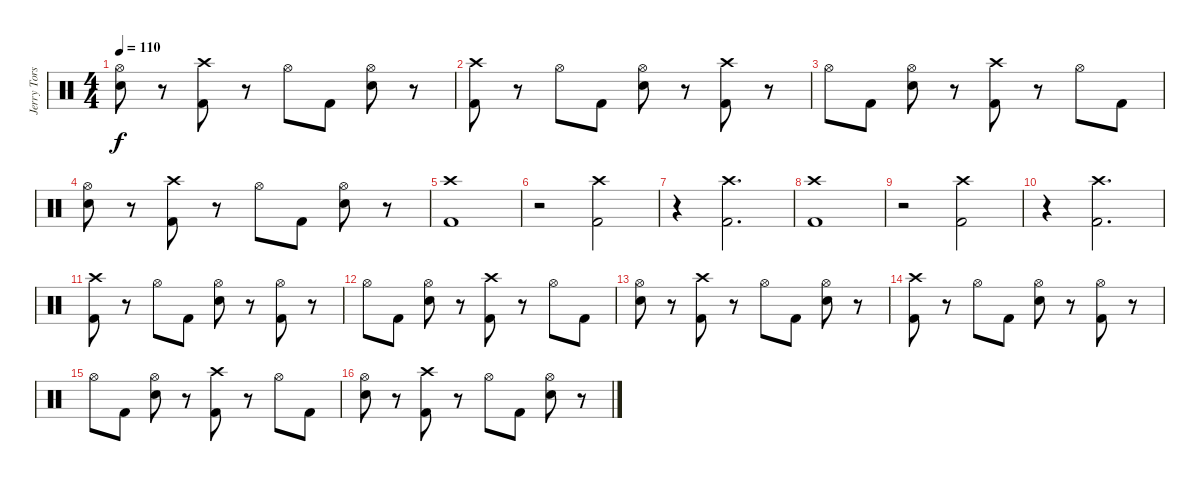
\track ("Jerry Torstensson" "Jerry Tors") {instrument percussion}
\staff {score}
\articulation defaults
\ts (4 4)
\tempo 110
\clef neutral
\ks c
("Hi-Hat (open)" "Electric Snare (hit)").8{dy f} r.8 ("Crash high (hit)" "Kick (hit) 2").8 r.8 "Hi-Hat (open)".8 "Kick (hit) 2".8 ("Hi-Hat (open)" "Electric Snare (hit)").8 r.8 |
("Crash high (hit)" "Kick (hit) 2").8 r.8 "Hi-Hat (open)".8 "Kick (hit) 2".8 ("Hi-Hat (open)" "Electric Snare (hit)").8 r.8 ("Crash high (hit)" "Kick (hit) 2").8 r.8 |
"Hi-Hat (open)".8 "Kick (hit) 2".8 ("Hi-Hat (open)" "Electric Snare (hit)").8 r.8 ("Crash high (hit)" "Kick (hit) 2").8 r.8 "Hi-Hat (open)".8 "Kick (hit) 2".8 |
("Hi-Hat (open)" "Electric Snare (hit)").8 r.8 ("Crash high (hit)" "Kick (hit) 2").8 r.8 "Hi-Hat (open)".8 "Kick (hit) 2".8 ("Hi-Hat (open)" "Electric Snare (hit)").8 r.8 |
("Crash high (hit)" "Kick (hit) 2").1 |
r.2 ("Crash high (hit)" "Kick (hit) 2").2 |
r.4 ("Crash high (hit)" "Kick (hit) 2").2{d} |
("Crash high (hit)" "Kick (hit) 2").1 |
r.2 ("Crash high (hit)" "Kick (hit) 2").2 |
r.4 ("Crash high (hit)" "Kick (hit) 2").2{d} |
("Crash high (hit)" "Kick (hit) 2").8 r.8 "Hi-Hat (open)".8 "Kick (hit) 2".8 ("Hi-Hat (open)" "Electric Snare (hit)").8 r.8 ("Hi-Hat (open)" "Kick (hit) 2").8 r.8 |
"Hi-Hat (open)".8 "Kick (hit) 2".8 ("Hi-Hat (open)" "Electric Snare (hit)").8 r.8 ("Crash high (hit)" "Kick (hit) 2").8 r.8 "Hi-Hat (open)".8 "Kick (hit) 2".8 |
("Hi-Hat (open)" "Electric Snare (hit)").8 r.8 ("Crash high (hit)" "Kick (hit) 2").8 r.8 "Hi-Hat (open)".8 "Kick (hit) 2".8 ("Hi-Hat (open)" "Electric Snare (hit)").8 r.8 |
("Crash high (hit)" "Kick (hit) 2").8 r.8 "Hi-Hat (open)".8 "Kick (hit) 2".8 ("Hi-Hat (open)" "Electric Snare (hit)").8 r.8 ("Hi-Hat (open)" "Kick (hit) 2").8 r.8 |
"Hi-Hat (open)".8 "Kick (hit) 2".8 ("Hi-Hat (open)" "Electric Snare (hit)").8 r.8 ("Crash high (hit)" "Kick (hit) 2").8 r.8 "Hi-Hat (open)".8 "Kick (hit) 2".8 |
("Hi-Hat (open)" "Electric Snare (hit)").8 r.8 ("Crash high (hit)" "Kick (hit) 2").8 r.8 "Hi-Hat (open)".8 "Kick (hit) 2".8 ("Hi-Hat (open)" "Electric Snare (hit)").8 r.8
